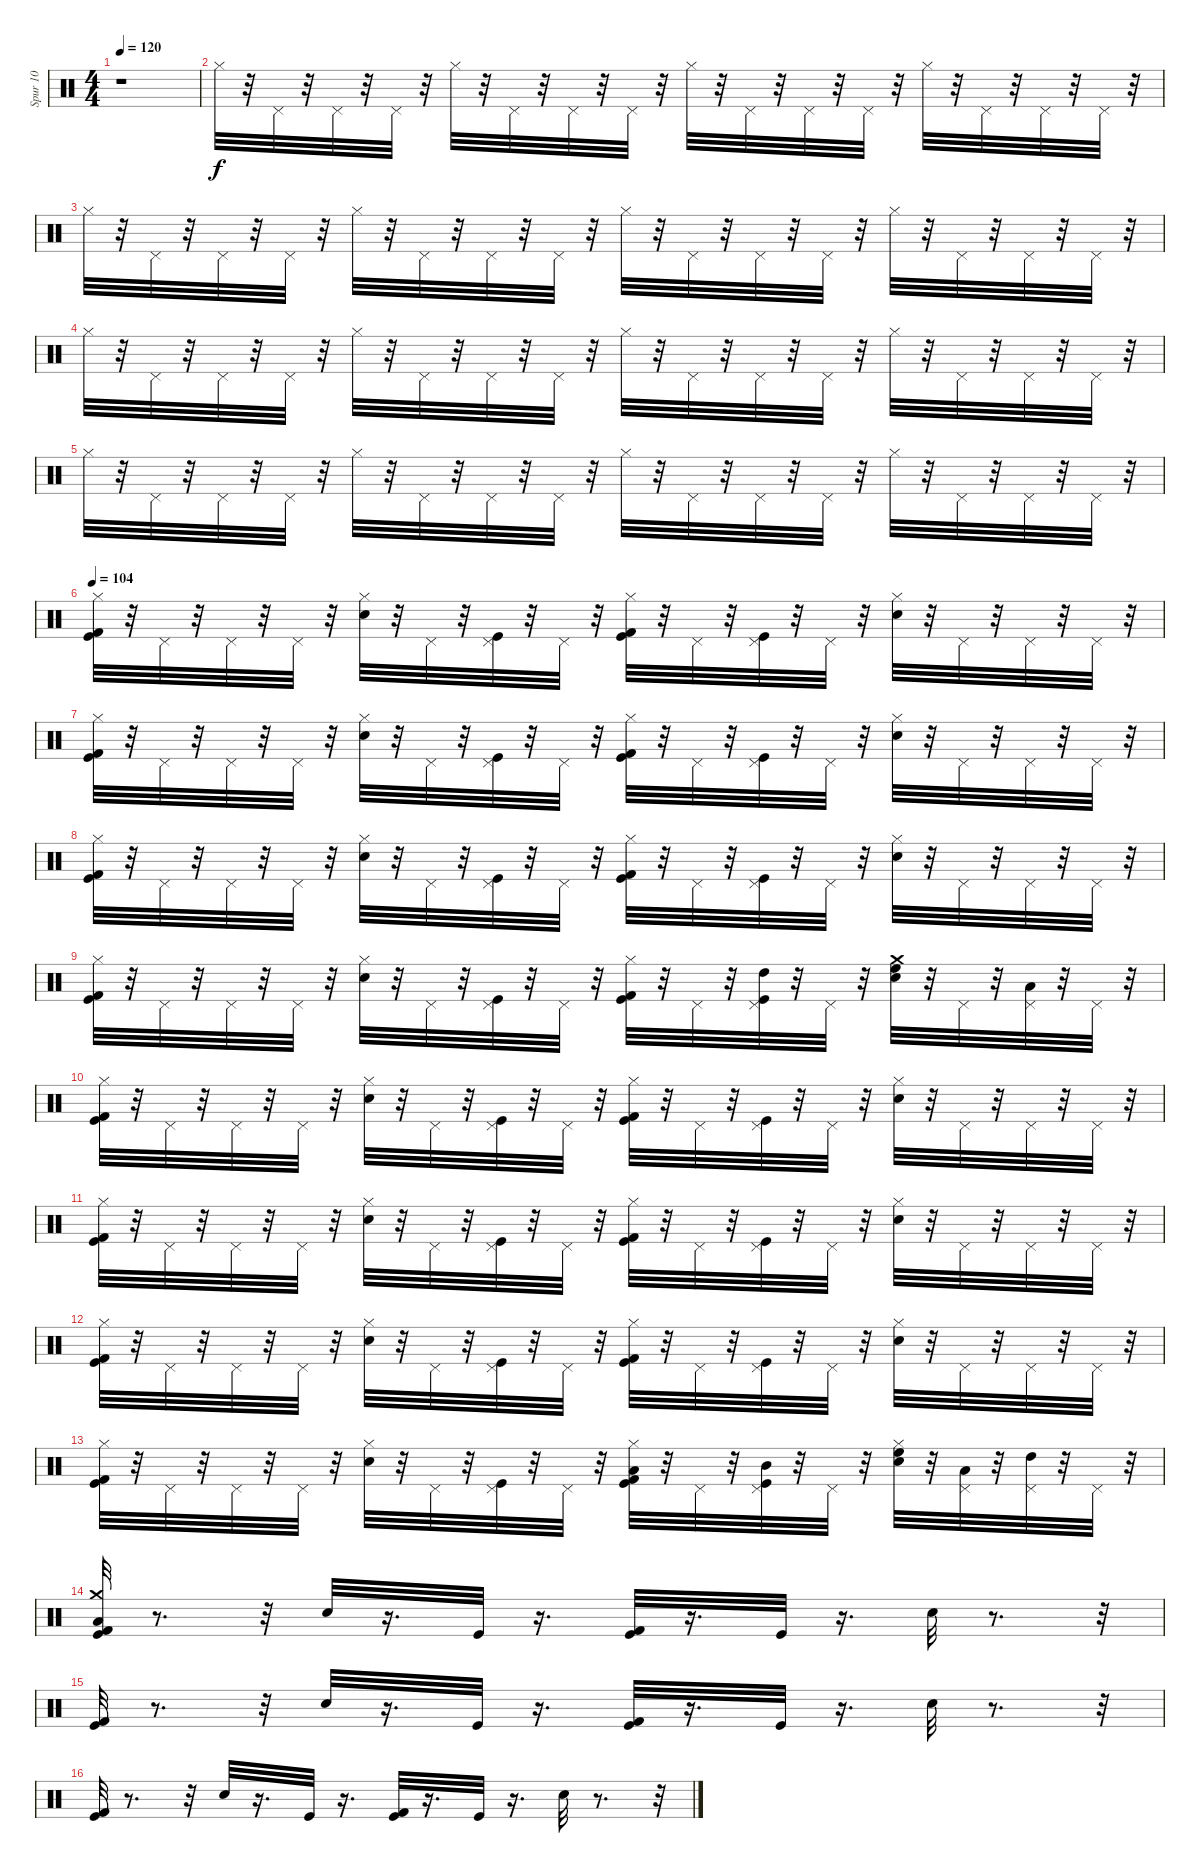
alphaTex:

\track ("Spur 10" "Spur 10") {instrument percussion}
\staff {score}
\articulation defaults
\ts (4 4)
\tempo 120
\clef neutral
\ks c
r.1{dy f} |
"Hi-Hat (closed)".32 r.32 "Pedal Hi-Hat (hit)".32 r.32 "Pedal Hi-Hat (hit)".32 r.32 "Pedal Hi-Hat (hit)".32 r.32 "Hi-Hat (closed)".32 r.32 "Pedal Hi-Hat (hit)".32 r.32 "Pedal Hi-Hat (hit)".32 r.32 "Pedal Hi-Hat (hit)".32 r.32 "Hi-Hat (closed)".32 r.32 "Pedal Hi-Hat (hit)".32 r.32 "Pedal Hi-Hat (hit)".32 r.32 "Pedal Hi-Hat (hit)".32 r.32 "Hi-Hat (closed)".32 r.32 "Pedal Hi-Hat (hit)".32 r.32 "Pedal Hi-Hat (hit)".32 r.32 "Pedal Hi-Hat (hit)".32 r.32 |
"Hi-Hat (closed)".32 r.32 "Pedal Hi-Hat (hit)".32 r.32 "Pedal Hi-Hat (hit)".32 r.32 "Pedal Hi-Hat (hit)".32 r.32 "Hi-Hat (closed)".32 r.32 "Pedal Hi-Hat (hit)".32 r.32 "Pedal Hi-Hat (hit)".32 r.32 "Pedal Hi-Hat (hit)".32 r.32 "Hi-Hat (closed)".32 r.32 "Pedal Hi-Hat (hit)".32 r.32 "Pedal Hi-Hat (hit)".32 r.32 "Pedal Hi-Hat (hit)".32 r.32 "Hi-Hat (closed)".32 r.32 "Pedal Hi-Hat (hit)".32 r.32 "Pedal Hi-Hat (hit)".32 r.32 "Pedal Hi-Hat (hit)".32 r.32 |
"Hi-Hat (closed)".32 r.32 "Pedal Hi-Hat (hit)".32 r.32 "Pedal Hi-Hat (hit)".32 r.32 "Pedal Hi-Hat (hit)".32 r.32 "Hi-Hat (closed)".32 r.32 "Pedal Hi-Hat (hit)".32 r.32 "Pedal Hi-Hat (hit)".32 r.32 "Pedal Hi-Hat (hit)".32 r.32 "Hi-Hat (closed)".32 r.32 "Pedal Hi-Hat (hit)".32 r.32 "Pedal Hi-Hat (hit)".32 r.32 "Pedal Hi-Hat (hit)".32 r.32 "Hi-Hat (closed)".32 r.32 "Pedal Hi-Hat (hit)".32 r.32 "Pedal Hi-Hat (hit)".32 r.32 "Pedal Hi-Hat (hit)".32 r.32 |
"Hi-Hat (closed)".32 r.32 "Pedal Hi-Hat (hit)".32 r.32 "Pedal Hi-Hat (hit)".32 r.32 "Pedal Hi-Hat (hit)".32 r.32 "Hi-Hat (closed)".32 r.32 "Pedal Hi-Hat (hit)".32 r.32 "Pedal Hi-Hat (hit)".32 r.32 "Pedal Hi-Hat (hit)".32 r.32 "Hi-Hat (closed)".32 r.32 "Pedal Hi-Hat (hit)".32 r.32 "Pedal Hi-Hat (hit)".32 r.32 "Pedal Hi-Hat (hit)".32 r.32 "Hi-Hat (closed)".32 r.32 "Pedal Hi-Hat (hit)".32 r.32 "Pedal Hi-Hat (hit)".32 r.32 "Pedal Hi-Hat (hit)".32 r.32 |
\tempo 104
("Kick (hit) 2" "Kick (hit)" "Hi-Hat (closed)").32 r.32 "Pedal Hi-Hat (hit)".32 r.32 "Pedal Hi-Hat (hit)".32 r.32 "Pedal Hi-Hat (hit)".32 r.32 ("Hi-Hat (closed)" "Electric Snare (hit)").32 r.32 "Pedal Hi-Hat (hit)".32 r.32 ("Pedal Hi-Hat (hit)" "Kick (hit)").32 r.32 "Pedal Hi-Hat (hit)".32 r.32 ("Kick (hit) 2" "Kick (hit)" "Hi-Hat (closed)").32 r.32 "Pedal Hi-Hat (hit)".32 r.32 ("Pedal Hi-Hat (hit)" "Kick (hit)").32 r.32 "Pedal Hi-Hat (hit)".32 r.32 ("Hi-Hat (closed)" "Electric Snare (hit)").32 r.32 "Pedal Hi-Hat (hit)".32 r.32 "Pedal Hi-Hat (hit)".32 r.32 "Pedal Hi-Hat (hit)".32 r.32 |
("Kick (hit) 2" "Kick (hit)" "Hi-Hat (closed)").32 r.32 "Pedal Hi-Hat (hit)".32 r.32 "Pedal Hi-Hat (hit)".32 r.32 "Pedal Hi-Hat (hit)".32 r.32 ("Electric Snare (hit)" "Hi-Hat (closed)").32 r.32 "Pedal Hi-Hat (hit)".32 r.32 ("Kick (hit)" "Pedal Hi-Hat (hit)").32 r.32 "Pedal Hi-Hat (hit)".32 r.32 ("Hi-Hat (closed)" "Kick (hit) 2" "Kick (hit)").32 r.32 "Pedal Hi-Hat (hit)".32 r.32 ("Kick (hit)" "Pedal Hi-Hat (hit)").32 r.32 "Pedal Hi-Hat (hit)".32 r.32 ("Hi-Hat (closed)" "Electric Snare (hit)").32 r.32 "Pedal Hi-Hat (hit)".32 r.32 "Pedal Hi-Hat (hit)".32 r.32 "Pedal Hi-Hat (hit)".32 r.32 |
("Hi-Hat (closed)" "Kick (hit) 2" "Kick (hit)").32 r.32 "Pedal Hi-Hat (hit)".32 r.32 "Pedal Hi-Hat (hit)".32 r.32 "Pedal Hi-Hat (hit)".32 r.32 ("Hi-Hat (closed)" "Electric Snare (hit)").32 r.32 "Pedal Hi-Hat (hit)".32 r.32 ("Pedal Hi-Hat (hit)" "Kick (hit)").32 r.32 "Pedal Hi-Hat (hit)".32 r.32 ("Kick (hit) 2" "Kick (hit)" "Hi-Hat (closed)").32 r.32 "Pedal Hi-Hat (hit)".32 r.32 ("Pedal Hi-Hat (hit)" "Kick (hit)").32 r.32 "Pedal Hi-Hat (hit)".32 r.32 ("Hi-Hat (closed)" "Electric Snare (hit)").32 r.32 "Pedal Hi-Hat (hit)".32 r.32 "Pedal Hi-Hat (hit)".32 r.32 "Pedal Hi-Hat (hit)".32 r.32 |
("Kick (hit) 2" "Kick (hit)" "Hi-Hat (closed)").32 r.32 "Pedal Hi-Hat (hit)".32 r.32 "Pedal Hi-Hat (hit)".32 r.32 "Pedal Hi-Hat (hit)".32 r.32 ("Electric Snare (hit)" "Hi-Hat (closed)").32 r.32 "Pedal Hi-Hat (hit)".32 r.32 ("Kick (hit)" "Pedal Hi-Hat (hit)").32 r.32 "Pedal Hi-Hat (hit)".32 r.32 ("Hi-Hat (closed)" "Kick (hit) 2" "Kick (hit)").32 r.32 "Pedal Hi-Hat (hit)".32 r.32 ("Kick (hit)" "Pedal Hi-Hat (hit)" "High Tom (hit)").32 r.32 "Pedal Hi-Hat (hit)".32 r.32 ("High Floor Tom (hit)" "Crash medium (hit)" "Electric Snare (hit)").32 r.32 "Pedal Hi-Hat (hit)".32 r.32 ("Low Tom (hit)" "Pedal Hi-Hat (hit)").32 r.32 "Pedal Hi-Hat (hit)".32 r.32 |
("Hi-Hat (closed)" "Kick (hit)" "Kick (hit) 2").32 r.32 "Pedal Hi-Hat (hit)".32 r.32 "Pedal Hi-Hat (hit)".32 r.32 "Pedal Hi-Hat (hit)".32 r.32 ("Hi-Hat (closed)" "Electric Snare (hit)").32 r.32 "Pedal Hi-Hat (hit)".32 r.32 ("Pedal Hi-Hat (hit)" "Kick (hit)").32 r.32 "Pedal Hi-Hat (hit)".32 r.32 ("Kick (hit) 2" "Kick (hit)" "Hi-Hat (closed)").32 r.32 "Pedal Hi-Hat (hit)".32 r.32 ("Pedal Hi-Hat (hit)" "Kick (hit)").32 r.32 "Pedal Hi-Hat (hit)".32 r.32 ("Hi-Hat (closed)" "Electric Snare (hit)").32 r.32 "Pedal Hi-Hat (hit)".32 r.32 "Pedal Hi-Hat (hit)".32 r.32 "Pedal Hi-Hat (hit)".32 r.32 |
("Kick (hit) 2" "Kick (hit)" "Hi-Hat (closed)").32 r.32 "Pedal Hi-Hat (hit)".32 r.32 "Pedal Hi-Hat (hit)".32 r.32 "Pedal Hi-Hat (hit)".32 r.32 ("Electric Snare (hit)" "Hi-Hat (closed)").32 r.32 "Pedal Hi-Hat (hit)".32 r.32 ("Kick (hit)" "Pedal Hi-Hat (hit)").32 r.32 "Pedal Hi-Hat (hit)".32 r.32 ("Hi-Hat (closed)" "Kick (hit) 2" "Kick (hit)").32 r.32 "Pedal Hi-Hat (hit)".32 r.32 ("Kick (hit)" "Pedal Hi-Hat (hit)").32 r.32 "Pedal Hi-Hat (hit)".32 r.32 ("Hi-Hat (closed)" "Electric Snare (hit)").32 r.32 "Pedal Hi-Hat (hit)".32 r.32 "Pedal Hi-Hat (hit)".32 r.32 "Pedal Hi-Hat (hit)".32 r.32 |
("Hi-Hat (closed)" "Kick (hit) 2" "Kick (hit)").32 r.32 "Pedal Hi-Hat (hit)".32 r.32 "Pedal Hi-Hat (hit)".32 r.32 "Pedal Hi-Hat (hit)".32 r.32 ("Hi-Hat (closed)" "Electric Snare (hit)").32 r.32 "Pedal Hi-Hat (hit)".32 r.32 ("Pedal Hi-Hat (hit)" "Kick (hit)").32 r.32 "Pedal Hi-Hat (hit)".32 r.32 ("Kick (hit) 2" "Kick (hit)" "Hi-Hat (closed)").32 r.32 "Pedal Hi-Hat (hit)".32 r.32 ("Pedal Hi-Hat (hit)" "Kick (hit)").32 r.32 "Pedal Hi-Hat (hit)".32 r.32 ("Hi-Hat (closed)" "Electric Snare (hit)").32 r.32 "Pedal Hi-Hat (hit)".32 r.32 "Pedal Hi-Hat (hit)".32 r.32 "Pedal Hi-Hat (hit)".32 r.32 |
("Kick (hit) 2" "Kick (hit)" "Hi-Hat (closed)").32 r.32 "Pedal Hi-Hat (hit)".32 r.32 "Pedal Hi-Hat (hit)".32 r.32 "Pedal Hi-Hat (hit)".32 r.32 ("Electric Snare (hit)" "Hi-Hat (closed)").32 r.32 "Pedal Hi-Hat (hit)".32 r.32 ("Kick (hit)" "Pedal Hi-Hat (hit)").32 r.32 "Pedal Hi-Hat (hit)".32 r.32 ("Low Tom (hit)" "Hi-Hat (closed)" "Kick (hit) 2" "Kick (hit)").32 r.32 "Pedal Hi-Hat (hit)".32 r.32 ("Kick (hit)" "Pedal Hi-Hat (hit)" "Mid Tom (hit)").32 r.32 "Pedal Hi-Hat (hit)".32 r.32 ("Hi-Hat (closed)" "Electric Snare (hit)" "High Floor Tom (hit)").32 r.32 ("Low Tom (hit)" "Pedal Hi-Hat (hit)").32 r.32 ("Pedal Hi-Hat (hit)" "High Tom (hit)").32 r.32 "Pedal Hi-Hat (hit)".32 r.32 |
("Kick (hit) 2" "Kick (hit)" "Crash medium (hit)" "Low Tom (hit)").32 r.8{d} r.32 "Electric Snare (hit)".32 r.16{d} "Kick (hit)".32 r.16{d} ("Kick (hit) 2" "Kick (hit)").32 r.16{d} "Kick (hit)".32 r.16{d} "Electric Snare (hit)".32 r.8{d} r.32 |
("Kick (hit) 2" "Kick (hit)").32 r.8{d} r.32 "Electric Snare (hit)".32 r.16{d} "Kick (hit)".32 r.16{d} ("Kick (hit) 2" "Kick (hit)").32 r.16{d} "Kick (hit)".32 r.16{d} "Electric Snare (hit)".32 r.8{d} r.32 |
("Kick (hit) 2" "Kick (hit)").32 r.8{d} r.32 "Electric Snare (hit)".32 r.16{d} "Kick (hit)".32 r.16{d} ("Kick (hit) 2" "Kick (hit)").32 r.16{d} "Kick (hit)".32 r.16{d} "Electric Snare (hit)".32 r.8{d} r.32
